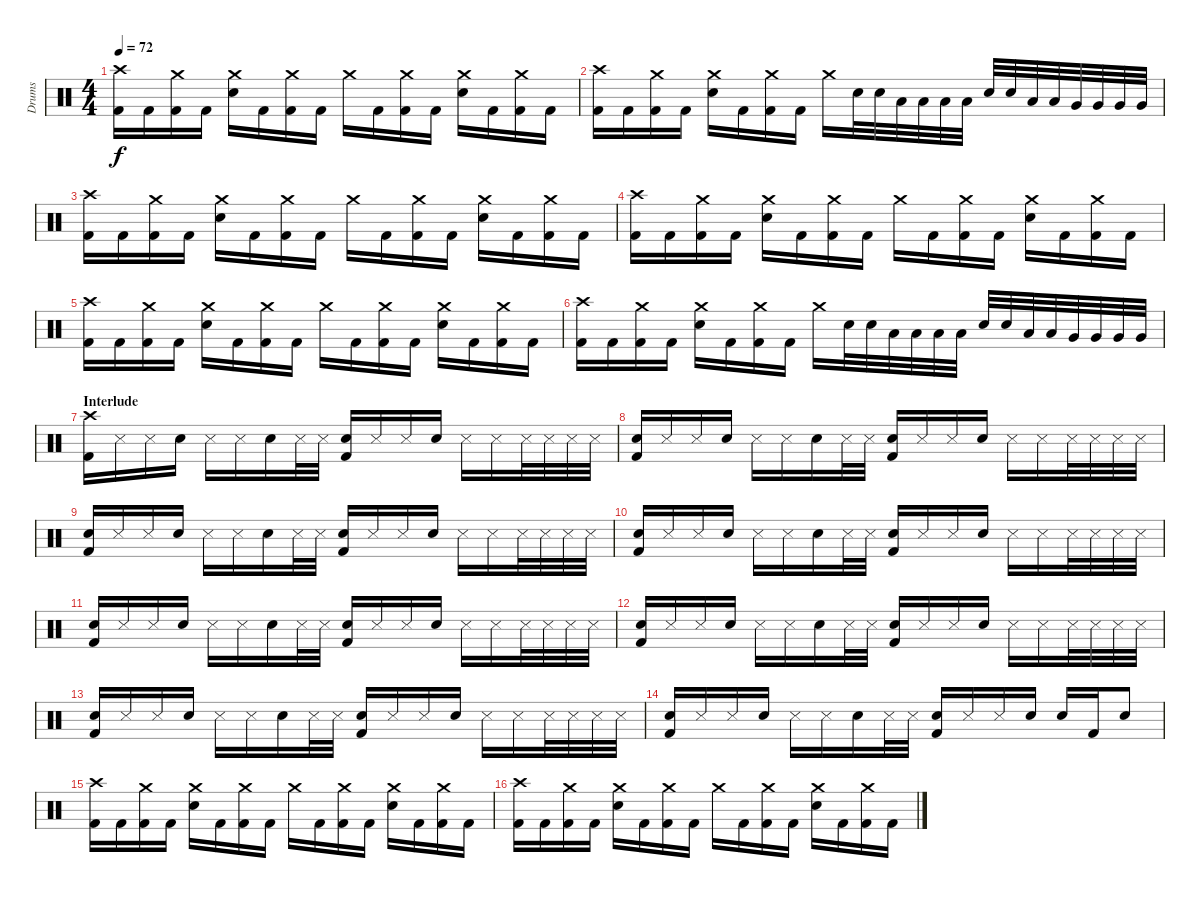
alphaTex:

\track ("Drums" "Drums") {instrument percussion}
\staff {score}
\articulation defaults
\ts (4 4)
\tempo 72
\clef neutral
\ks c
("Crash high (hit)" "Kick (hit) 2").16{dy f} "Kick (hit) 2".16 ("Kick (hit) 2" "Crash medium (hit)").16 "Kick (hit) 2".16 ("Snare (hit) 2" "Crash medium (hit)").16 "Kick (hit) 2".16 ("Kick (hit) 2" "Crash medium (hit)").16 "Kick (hit) 2".16 "Crash medium (hit)".16 "Kick (hit) 2".16 ("Kick (hit) 2" "Crash medium (hit)").16 "Kick (hit) 2".16 ("Snare (hit) 2" "Crash medium (hit)").16 "Kick (hit) 2".16 ("Kick (hit) 2" "Crash medium (hit)").16 "Kick (hit) 2".16 |
("Crash high (hit)" "Kick (hit) 2").16 "Kick (hit) 2".16 ("Kick (hit) 2" "Crash medium (hit)").16 "Kick (hit) 2".16 ("Snare (hit) 2" "Crash medium (hit)").16 "Kick (hit) 2".16 ("Kick (hit) 2" "Crash medium (hit)").16 "Kick (hit) 2".16 "Crash medium (hit)".16 "Snare (hit) 2".32 "Snare (hit) 2".32 "Low Tom (hit)".32 "Low Tom (hit)".32 "Low Tom (hit)".32 "Low Tom (hit)".32 "Snare (hit) 2".32 "Snare (hit) 2".32 "Low Tom (hit)".32 "Low Tom (hit)".32 "Very Low Tom (hit)".32 "Very Low Tom (hit)".32 "Very Low Tom (hit)".32 "Very Low Tom (hit)".32 |
("Crash high (hit)" "Kick (hit) 2").16 "Kick (hit) 2".16 ("Kick (hit) 2" "Crash medium (hit)").16 "Kick (hit) 2".16 ("Snare (hit) 2" "Crash medium (hit)").16 "Kick (hit) 2".16 ("Kick (hit) 2" "Crash medium (hit)").16 "Kick (hit) 2".16 "Crash medium (hit)".16 "Kick (hit) 2".16 ("Kick (hit) 2" "Crash medium (hit)").16 "Kick (hit) 2".16 ("Snare (hit) 2" "Crash medium (hit)").16 "Kick (hit) 2".16 ("Kick (hit) 2" "Crash medium (hit)").16 "Kick (hit) 2".16 |
("Crash high (hit)" "Kick (hit) 2").16 "Kick (hit) 2".16 ("Kick (hit) 2" "Crash medium (hit)").16 "Kick (hit) 2".16 ("Snare (hit) 2" "Crash medium (hit)").16 "Kick (hit) 2".16 ("Kick (hit) 2" "Crash medium (hit)").16 "Kick (hit) 2".16 "Crash medium (hit)".16 "Kick (hit) 2".16 ("Kick (hit) 2" "Crash medium (hit)").16 "Kick (hit) 2".16 ("Snare (hit) 2" "Crash medium (hit)").16 "Kick (hit) 2".16 ("Kick (hit) 2" "Crash medium (hit)").16 "Kick (hit) 2".16 |
("Crash high (hit)" "Kick (hit) 2").16 "Kick (hit) 2".16 ("Kick (hit) 2" "Crash medium (hit)").16 "Kick (hit) 2".16 ("Snare (hit) 2" "Crash medium (hit)").16 "Kick (hit) 2".16 ("Kick (hit) 2" "Crash medium (hit)").16 "Kick (hit) 2".16 "Crash medium (hit)".16 "Kick (hit) 2".16 ("Kick (hit) 2" "Crash medium (hit)").16 "Kick (hit) 2".16 ("Snare (hit) 2" "Crash medium (hit)").16 "Kick (hit) 2".16 ("Kick (hit) 2" "Crash medium (hit)").16 "Kick (hit) 2".16 |
("Crash high (hit)" "Kick (hit) 2").16 "Kick (hit) 2".16 ("Kick (hit) 2" "Crash medium (hit)").16 "Kick (hit) 2".16 ("Snare (hit) 2" "Crash medium (hit)").16 "Kick (hit) 2".16 ("Kick (hit) 2" "Crash medium (hit)").16 "Kick (hit) 2".16 "Crash medium (hit)".16 "Snare (hit) 2".32 "Snare (hit) 2".32 "Low Tom (hit)".32 "Low Tom (hit)".32 "Low Tom (hit)".32 "Low Tom (hit)".32 "Snare (hit) 2".32 "Snare (hit) 2".32 "Low Tom (hit)".32 "Low Tom (hit)".32 "Very Low Tom (hit)".32 "Very Low Tom (hit)".32 "Very Low Tom (hit)".32 "Very Low Tom (hit)".32 |
\section ("" "Interlude")
("Crash high (hit)" "Kick (hit) 2").16 "Snare (side stick) 3".16 "Snare (side stick) 3".16 "Snare (hit) 2".16 "Snare (side stick) 3".16 "Snare (side stick) 3".16 "Snare (hit) 2".16 "Snare (side stick) 3".32 "Snare (side stick) 3".32 ("Snare (hit) 2" "Kick (hit) 2").16 "Snare (side stick) 3".16 "Snare (side stick) 3".16 "Snare (hit) 2".16 "Snare (side stick) 3".16 "Snare (side stick) 3".16 "Snare (side stick) 3".32 "Snare (side stick) 3".32 "Snare (side stick) 3".32 "Snare (side stick) 3".32 |
("Snare (hit) 2" "Kick (hit) 2").16 "Snare (side stick) 3".16 "Snare (side stick) 3".16 "Snare (hit) 2".16 "Snare (side stick) 3".16 "Snare (side stick) 3".16 "Snare (hit) 2".16 "Snare (side stick) 3".32 "Snare (side stick) 3".32 ("Snare (hit) 2" "Kick (hit) 2").16 "Snare (side stick) 3".16 "Snare (side stick) 3".16 "Snare (hit) 2".16 "Snare (side stick) 3".16 "Snare (side stick) 3".16 "Snare (side stick) 3".32 "Snare (side stick) 3".32 "Snare (side stick) 3".32 "Snare (side stick) 3".32 |
("Snare (hit) 2" "Kick (hit) 2").16 "Snare (side stick) 3".16 "Snare (side stick) 3".16 "Snare (hit) 2".16 "Snare (side stick) 3".16 "Snare (side stick) 3".16 "Snare (hit) 2".16 "Snare (side stick) 3".32 "Snare (side stick) 3".32 ("Snare (hit) 2" "Kick (hit) 2").16 "Snare (side stick) 3".16 "Snare (side stick) 3".16 "Snare (hit) 2".16 "Snare (side stick) 3".16 "Snare (side stick) 3".16 "Snare (side stick) 3".32 "Snare (side stick) 3".32 "Snare (side stick) 3".32 "Snare (side stick) 3".32 |
("Snare (hit) 2" "Kick (hit) 2").16 "Snare (side stick) 3".16 "Snare (side stick) 3".16 "Snare (hit) 2".16 "Snare (side stick) 3".16 "Snare (side stick) 3".16 "Snare (hit) 2".16 "Snare (side stick) 3".32 "Snare (side stick) 3".32 ("Snare (hit) 2" "Kick (hit) 2").16 "Snare (side stick) 3".16 "Snare (side stick) 3".16 "Snare (hit) 2".16 "Snare (side stick) 3".16 "Snare (side stick) 3".16 "Snare (side stick) 3".32 "Snare (side stick) 3".32 "Snare (side stick) 3".32 "Snare (side stick) 3".32 |
("Snare (hit) 2" "Kick (hit) 2").16 "Snare (side stick) 3".16 "Snare (side stick) 3".16 "Snare (hit) 2".16 "Snare (side stick) 3".16 "Snare (side stick) 3".16 "Snare (hit) 2".16 "Snare (side stick) 3".32 "Snare (side stick) 3".32 ("Snare (hit) 2" "Kick (hit) 2").16 "Snare (side stick) 3".16 "Snare (side stick) 3".16 "Snare (hit) 2".16 "Snare (side stick) 3".16 "Snare (side stick) 3".16 "Snare (side stick) 3".32 "Snare (side stick) 3".32 "Snare (side stick) 3".32 "Snare (side stick) 3".32 |
("Snare (hit) 2" "Kick (hit) 2").16 "Snare (side stick) 3".16 "Snare (side stick) 3".16 "Snare (hit) 2".16 "Snare (side stick) 3".16 "Snare (side stick) 3".16 "Snare (hit) 2".16 "Snare (side stick) 3".32 "Snare (side stick) 3".32 ("Snare (hit) 2" "Kick (hit) 2").16 "Snare (side stick) 3".16 "Snare (side stick) 3".16 "Snare (hit) 2".16 "Snare (side stick) 3".16 "Snare (side stick) 3".16 "Snare (side stick) 3".32 "Snare (side stick) 3".32 "Snare (side stick) 3".32 "Snare (side stick) 3".32 |
("Snare (hit) 2" "Kick (hit) 2").16 "Snare (side stick) 3".16 "Snare (side stick) 3".16 "Snare (hit) 2".16 "Snare (side stick) 3".16 "Snare (side stick) 3".16 "Snare (hit) 2".16 "Snare (side stick) 3".32 "Snare (side stick) 3".32 ("Snare (hit) 2" "Kick (hit) 2").16 "Snare (side stick) 3".16 "Snare (side stick) 3".16 "Snare (hit) 2".16 "Snare (side stick) 3".16 "Snare (side stick) 3".16 "Snare (side stick) 3".32 "Snare (side stick) 3".32 "Snare (side stick) 3".32 "Snare (side stick) 3".32 |
("Snare (hit) 2" "Kick (hit) 2").16 "Snare (side stick) 3".16 "Snare (side stick) 3".16 "Snare (hit) 2".16 "Snare (side stick) 3".16 "Snare (side stick) 3".16 "Snare (hit) 2".16 "Snare (side stick) 3".32 "Snare (side stick) 3".32 ("Snare (hit) 2" "Kick (hit) 2").16 "Snare (side stick) 3".16 "Snare (side stick) 3".16 "Snare (hit) 2".16 "Snare (hit) 2".16 "Kick (hit) 2".16 "Snare (hit) 2".8 |
("Crash high (hit)" "Kick (hit) 2").16 "Kick (hit) 2".16 ("Kick (hit) 2" "Crash medium (hit)").16 "Kick (hit) 2".16 ("Snare (hit) 2" "Crash medium (hit)").16 "Kick (hit) 2".16 ("Kick (hit) 2" "Crash medium (hit)").16 "Kick (hit) 2".16 "Crash medium (hit)".16 "Kick (hit) 2".16 ("Kick (hit) 2" "Crash medium (hit)").16 "Kick (hit) 2".16 ("Snare (hit) 2" "Crash medium (hit)").16 "Kick (hit) 2".16 ("Kick (hit) 2" "Crash medium (hit)").16 "Kick (hit) 2".16 |
("Crash high (hit)" "Kick (hit) 2").16 "Kick (hit) 2".16 ("Kick (hit) 2" "Crash medium (hit)").16 "Kick (hit) 2".16 ("Snare (hit) 2" "Crash medium (hit)").16 "Kick (hit) 2".16 ("Kick (hit) 2" "Crash medium (hit)").16 "Kick (hit) 2".16 "Crash medium (hit)".16 "Kick (hit) 2".16 ("Kick (hit) 2" "Crash medium (hit)").16 "Kick (hit) 2".16 ("Snare (hit) 2" "Crash medium (hit)").16 "Kick (hit) 2".16 ("Kick (hit) 2" "Crash medium (hit)").16 "Kick (hit) 2".16
